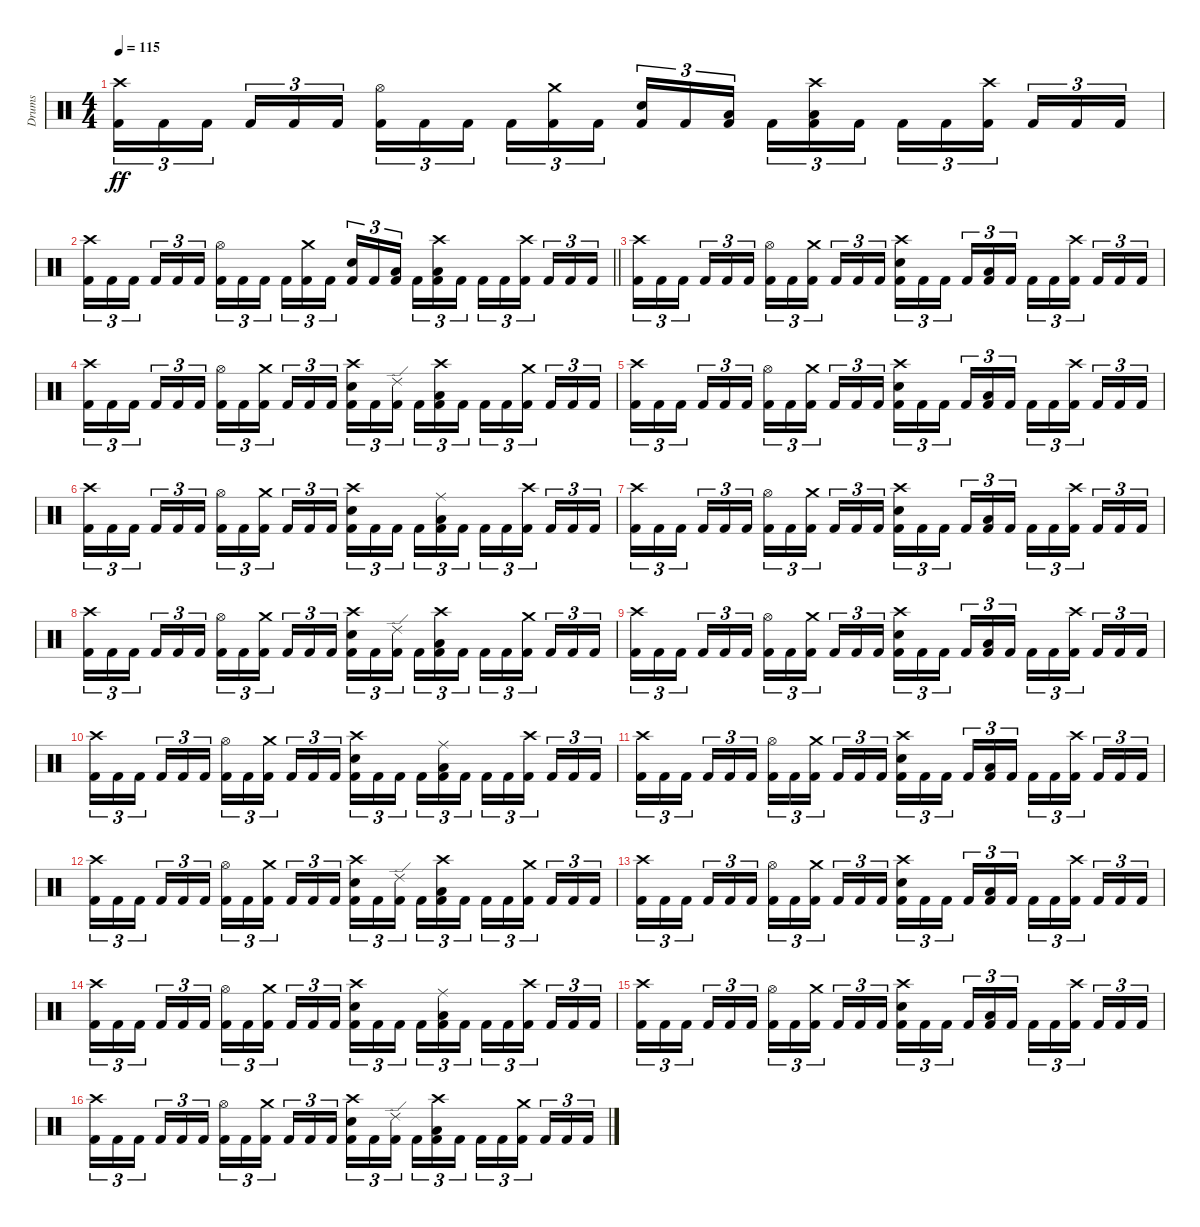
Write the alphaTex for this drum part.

\track ("Drums" "Drums") {instrument percussion}
\staff {score}
\articulation defaults
\ts (4 4)
\tempo 115
\clef neutral
\ks c
("Crash high (hit)" "Kick (hit) 2").16{tu (3 2) dy ff} "Kick (hit) 2".16{tu (3 2)} "Kick (hit) 2".16{tu (3 2) beam splitsecondary} "Kick (hit) 2".16{tu (3 2)} "Kick (hit) 2".16{tu (3 2)} "Kick (hit) 2".16{tu (3 2)} ("Hi-Hat (open)" "Kick (hit) 2").16{tu (3 2)} "Kick (hit) 2".16{tu (3 2)} "Kick (hit) 2".16{tu (3 2) beam splitsecondary} "Kick (hit) 2".16{tu (3 2)} ("Crash medium (hit)" "Kick (hit) 2").16{tu (3 2)} "Kick (hit) 2".16{tu (3 2)} ("Snare (hit) 2" "Kick (hit) 2").16{tu (3 2)} "Kick (hit) 2".16{tu (3 2)} ("Low Tom (hit)" "Kick (hit) 2").16{tu (3 2) beam splitsecondary} "Kick (hit) 2".16{tu (3 2)} ("Crash high (hit)" "Low Tom (hit)" "Kick (hit) 2").16{tu (3 2)} "Kick (hit) 2".16{tu (3 2)} "Kick (hit) 2".16{tu (3 2)} "Kick (hit) 2".16{tu (3 2)} ("Crash high (hit)" "Kick (hit) 2").16{tu (3 2) beam splitsecondary} "Kick (hit) 2".16{tu (3 2)} "Kick (hit) 2".16{tu (3 2)} "Kick (hit) 2".16{tu (3 2)} |
\barLineRight lightlight
("Crash high (hit)" "Kick (hit) 2").16{tu (3 2)} "Kick (hit) 2".16{tu (3 2)} "Kick (hit) 2".16{tu (3 2) beam splitsecondary} "Kick (hit) 2".16{tu (3 2)} "Kick (hit) 2".16{tu (3 2)} "Kick (hit) 2".16{tu (3 2)} ("Hi-Hat (open)" "Kick (hit) 2").16{tu (3 2)} "Kick (hit) 2".16{tu (3 2)} "Kick (hit) 2".16{tu (3 2) beam splitsecondary} "Kick (hit) 2".16{tu (3 2)} ("Crash medium (hit)" "Kick (hit) 2").16{tu (3 2)} "Kick (hit) 2".16{tu (3 2)} ("Snare (hit) 2" "Kick (hit) 2").16{tu (3 2)} "Kick (hit) 2".16{tu (3 2)} ("Low Tom (hit)" "Kick (hit) 2").16{tu (3 2) beam splitsecondary} "Kick (hit) 2".16{tu (3 2)} ("Crash high (hit)" "Low Tom (hit)" "Kick (hit) 2").16{tu (3 2)} "Kick (hit) 2".16{tu (3 2)} "Kick (hit) 2".16{tu (3 2)} "Kick (hit) 2".16{tu (3 2)} ("Crash high (hit)" "Kick (hit) 2").16{tu (3 2) beam splitsecondary} "Kick (hit) 2".16{tu (3 2)} "Kick (hit) 2".16{tu (3 2)} "Kick (hit) 2".16{tu (3 2)} |
("Crash high (hit)" "Kick (hit) 2").16{tu (3 2)} "Kick (hit) 2".16{tu (3 2)} "Kick (hit) 2".16{tu (3 2) beam splitsecondary} "Kick (hit) 2".16{tu (3 2)} "Kick (hit) 2".16{tu (3 2)} "Kick (hit) 2".16{tu (3 2)} ("Hi-Hat (open)" "Kick (hit) 2").16{tu (3 2)} "Kick (hit) 2".16{tu (3 2)} ("Crash medium (hit)" "Kick (hit) 2").16{tu (3 2) beam splitsecondary} "Kick (hit) 2".16{tu (3 2)} "Kick (hit) 2".16{tu (3 2)} "Kick (hit) 2".16{tu (3 2)} ("Crash high (hit)" "Snare (hit) 2" "Kick (hit) 2").16{tu (3 2)} "Kick (hit) 2".16{tu (3 2)} "Kick (hit) 2".16{tu (3 2) beam splitsecondary} "Kick (hit) 2".16{tu (3 2)} ("Low Tom (hit)" "Kick (hit) 2").16{tu (3 2)} "Kick (hit) 2".16{tu (3 2)} "Kick (hit) 2".16{tu (3 2)} "Kick (hit) 2".16{tu (3 2)} ("Crash high (hit)" "Kick (hit) 2").16{tu (3 2) beam splitsecondary} "Kick (hit) 2".16{tu (3 2)} "Kick (hit) 2".16{tu (3 2)} "Kick (hit) 2".16{tu (3 2)} |
("Crash high (hit)" "Kick (hit) 2").16{tu (3 2)} "Kick (hit) 2".16{tu (3 2)} "Kick (hit) 2".16{tu (3 2) beam splitsecondary} "Kick (hit) 2".16{tu (3 2)} "Kick (hit) 2".16{tu (3 2)} "Kick (hit) 2".16{tu (3 2)} ("Hi-Hat (open)" "Kick (hit) 2").16{tu (3 2)} "Kick (hit) 2".16{tu (3 2)} ("Crash medium (hit)" "Kick (hit) 2").16{tu (3 2) beam splitsecondary} "Kick (hit) 2".16{tu (3 2)} "Kick (hit) 2".16{tu (3 2)} "Kick (hit) 2".16{tu (3 2)} ("Crash high (hit)" "Snare (hit) 2" "Kick (hit) 2").16{tu (3 2)} "Kick (hit) 2".16{tu (3 2)} ("Ride (edge) 2" "Kick (hit) 2").16{tu (3 2) beam splitsecondary} "Kick (hit) 2".16{tu (3 2)} ("Crash high (hit)" "Low Tom (hit)" "Kick (hit) 2").16{tu (3 2)} "Kick (hit) 2".16{tu (3 2)} "Kick (hit) 2".16{tu (3 2)} "Kick (hit) 2".16{tu (3 2)} ("Crash medium (hit)" "Kick (hit) 2").16{tu (3 2) beam splitsecondary} "Kick (hit) 2".16{tu (3 2)} "Kick (hit) 2".16{tu (3 2)} "Kick (hit) 2".16{tu (3 2)} |
("Crash high (hit)" "Kick (hit) 2").16{tu (3 2)} "Kick (hit) 2".16{tu (3 2)} "Kick (hit) 2".16{tu (3 2) beam splitsecondary} "Kick (hit) 2".16{tu (3 2)} "Kick (hit) 2".16{tu (3 2)} "Kick (hit) 2".16{tu (3 2)} ("Hi-Hat (open)" "Kick (hit) 2").16{tu (3 2)} "Kick (hit) 2".16{tu (3 2)} ("Crash medium (hit)" "Kick (hit) 2").16{tu (3 2) beam splitsecondary} "Kick (hit) 2".16{tu (3 2)} "Kick (hit) 2".16{tu (3 2)} "Kick (hit) 2".16{tu (3 2)} ("Crash high (hit)" "Snare (hit) 2" "Kick (hit) 2").16{tu (3 2)} "Kick (hit) 2".16{tu (3 2)} "Kick (hit) 2".16{tu (3 2) beam splitsecondary} "Kick (hit) 2".16{tu (3 2)} ("Low Tom (hit)" "Kick (hit) 2").16{tu (3 2)} "Kick (hit) 2".16{tu (3 2)} "Kick (hit) 2".16{tu (3 2)} "Kick (hit) 2".16{tu (3 2)} ("Crash high (hit)" "Kick (hit) 2").16{tu (3 2) beam splitsecondary} "Kick (hit) 2".16{tu (3 2)} "Kick (hit) 2".16{tu (3 2)} "Kick (hit) 2".16{tu (3 2)} |
("Crash high (hit)" "Kick (hit) 2").16{tu (3 2)} "Kick (hit) 2".16{tu (3 2)} "Kick (hit) 2".16{tu (3 2) beam splitsecondary} "Kick (hit) 2".16{tu (3 2)} "Kick (hit) 2".16{tu (3 2)} "Kick (hit) 2".16{tu (3 2)} ("Hi-Hat (open)" "Kick (hit) 2").16{tu (3 2)} "Kick (hit) 2".16{tu (3 2)} ("Crash medium (hit)" "Kick (hit) 2").16{tu (3 2) beam splitsecondary} "Kick (hit) 2".16{tu (3 2)} "Kick (hit) 2".16{tu (3 2)} "Kick (hit) 2".16{tu (3 2)} ("Crash high (hit)" "Snare (hit) 2" "Kick (hit) 2").16{tu (3 2)} "Kick (hit) 2".16{tu (3 2)} "Kick (hit) 2".16{tu (3 2) beam splitsecondary} "Kick (hit) 2".16{tu (3 2)} ("Ride (middle)" "Low Tom (hit)" "Kick (hit) 2").16{tu (3 2)} "Kick (hit) 2".16{tu (3 2)} "Kick (hit) 2".16{tu (3 2)} "Kick (hit) 2".16{tu (3 2)} ("Crash high (hit)" "Kick (hit) 2").16{tu (3 2) beam splitsecondary} "Kick (hit) 2".16{tu (3 2)} "Kick (hit) 2".16{tu (3 2)} "Kick (hit) 2".16{tu (3 2)} |
("Crash high (hit)" "Kick (hit) 2").16{tu (3 2)} "Kick (hit) 2".16{tu (3 2)} "Kick (hit) 2".16{tu (3 2) beam splitsecondary} "Kick (hit) 2".16{tu (3 2)} "Kick (hit) 2".16{tu (3 2)} "Kick (hit) 2".16{tu (3 2)} ("Hi-Hat (open)" "Kick (hit) 2").16{tu (3 2)} "Kick (hit) 2".16{tu (3 2)} ("Crash medium (hit)" "Kick (hit) 2").16{tu (3 2) beam splitsecondary} "Kick (hit) 2".16{tu (3 2)} "Kick (hit) 2".16{tu (3 2)} "Kick (hit) 2".16{tu (3 2)} ("Crash high (hit)" "Snare (hit) 2" "Kick (hit) 2").16{tu (3 2)} "Kick (hit) 2".16{tu (3 2)} "Kick (hit) 2".16{tu (3 2) beam splitsecondary} "Kick (hit) 2".16{tu (3 2)} ("Low Tom (hit)" "Kick (hit) 2").16{tu (3 2)} "Kick (hit) 2".16{tu (3 2)} "Kick (hit) 2".16{tu (3 2)} "Kick (hit) 2".16{tu (3 2)} ("Crash high (hit)" "Kick (hit) 2").16{tu (3 2) beam splitsecondary} "Kick (hit) 2".16{tu (3 2)} "Kick (hit) 2".16{tu (3 2)} "Kick (hit) 2".16{tu (3 2)} |
("Crash high (hit)" "Kick (hit) 2").16{tu (3 2)} "Kick (hit) 2".16{tu (3 2)} "Kick (hit) 2".16{tu (3 2) beam splitsecondary} "Kick (hit) 2".16{tu (3 2)} "Kick (hit) 2".16{tu (3 2)} "Kick (hit) 2".16{tu (3 2)} ("Hi-Hat (open)" "Kick (hit) 2").16{tu (3 2)} "Kick (hit) 2".16{tu (3 2)} ("Crash medium (hit)" "Kick (hit) 2").16{tu (3 2) beam splitsecondary} "Kick (hit) 2".16{tu (3 2)} "Kick (hit) 2".16{tu (3 2)} "Kick (hit) 2".16{tu (3 2)} ("Crash high (hit)" "Snare (hit) 2" "Kick (hit) 2").16{tu (3 2)} "Kick (hit) 2".16{tu (3 2)} ("Ride (edge) 2" "Kick (hit) 2").16{tu (3 2) beam splitsecondary} "Kick (hit) 2".16{tu (3 2)} ("Crash high (hit)" "Low Tom (hit)" "Kick (hit) 2").16{tu (3 2)} "Kick (hit) 2".16{tu (3 2)} "Kick (hit) 2".16{tu (3 2)} "Kick (hit) 2".16{tu (3 2)} ("Crash medium (hit)" "Kick (hit) 2").16{tu (3 2) beam splitsecondary} "Kick (hit) 2".16{tu (3 2)} "Kick (hit) 2".16{tu (3 2)} "Kick (hit) 2".16{tu (3 2)} |
("Crash high (hit)" "Kick (hit) 2").16{tu (3 2)} "Kick (hit) 2".16{tu (3 2)} "Kick (hit) 2".16{tu (3 2) beam splitsecondary} "Kick (hit) 2".16{tu (3 2)} "Kick (hit) 2".16{tu (3 2)} "Kick (hit) 2".16{tu (3 2)} ("Hi-Hat (open)" "Kick (hit) 2").16{tu (3 2)} "Kick (hit) 2".16{tu (3 2)} ("Crash medium (hit)" "Kick (hit) 2").16{tu (3 2) beam splitsecondary} "Kick (hit) 2".16{tu (3 2)} "Kick (hit) 2".16{tu (3 2)} "Kick (hit) 2".16{tu (3 2)} ("Crash high (hit)" "Snare (hit) 2" "Kick (hit) 2").16{tu (3 2)} "Kick (hit) 2".16{tu (3 2)} "Kick (hit) 2".16{tu (3 2) beam splitsecondary} "Kick (hit) 2".16{tu (3 2)} ("Low Tom (hit)" "Kick (hit) 2").16{tu (3 2)} "Kick (hit) 2".16{tu (3 2)} "Kick (hit) 2".16{tu (3 2)} "Kick (hit) 2".16{tu (3 2)} ("Crash high (hit)" "Kick (hit) 2").16{tu (3 2) beam splitsecondary} "Kick (hit) 2".16{tu (3 2)} "Kick (hit) 2".16{tu (3 2)} "Kick (hit) 2".16{tu (3 2)} |
("Crash high (hit)" "Kick (hit) 2").16{tu (3 2)} "Kick (hit) 2".16{tu (3 2)} "Kick (hit) 2".16{tu (3 2) beam splitsecondary} "Kick (hit) 2".16{tu (3 2)} "Kick (hit) 2".16{tu (3 2)} "Kick (hit) 2".16{tu (3 2)} ("Hi-Hat (open)" "Kick (hit) 2").16{tu (3 2)} "Kick (hit) 2".16{tu (3 2)} ("Crash medium (hit)" "Kick (hit) 2").16{tu (3 2) beam splitsecondary} "Kick (hit) 2".16{tu (3 2)} "Kick (hit) 2".16{tu (3 2)} "Kick (hit) 2".16{tu (3 2)} ("Crash high (hit)" "Snare (hit) 2" "Kick (hit) 2").16{tu (3 2)} "Kick (hit) 2".16{tu (3 2)} "Kick (hit) 2".16{tu (3 2) beam splitsecondary} "Kick (hit) 2".16{tu (3 2)} ("Ride (middle)" "Low Tom (hit)" "Kick (hit) 2").16{tu (3 2)} "Kick (hit) 2".16{tu (3 2)} "Kick (hit) 2".16{tu (3 2)} "Kick (hit) 2".16{tu (3 2)} ("Crash high (hit)" "Kick (hit) 2").16{tu (3 2) beam splitsecondary} "Kick (hit) 2".16{tu (3 2)} "Kick (hit) 2".16{tu (3 2)} "Kick (hit) 2".16{tu (3 2)} |
("Crash high (hit)" "Kick (hit) 2").16{tu (3 2)} "Kick (hit) 2".16{tu (3 2)} "Kick (hit) 2".16{tu (3 2) beam splitsecondary} "Kick (hit) 2".16{tu (3 2)} "Kick (hit) 2".16{tu (3 2)} "Kick (hit) 2".16{tu (3 2)} ("Hi-Hat (open)" "Kick (hit) 2").16{tu (3 2)} "Kick (hit) 2".16{tu (3 2)} ("Crash medium (hit)" "Kick (hit) 2").16{tu (3 2) beam splitsecondary} "Kick (hit) 2".16{tu (3 2)} "Kick (hit) 2".16{tu (3 2)} "Kick (hit) 2".16{tu (3 2)} ("Crash high (hit)" "Snare (hit) 2" "Kick (hit) 2").16{tu (3 2)} "Kick (hit) 2".16{tu (3 2)} "Kick (hit) 2".16{tu (3 2) beam splitsecondary} "Kick (hit) 2".16{tu (3 2)} ("Low Tom (hit)" "Kick (hit) 2").16{tu (3 2)} "Kick (hit) 2".16{tu (3 2)} "Kick (hit) 2".16{tu (3 2)} "Kick (hit) 2".16{tu (3 2)} ("Crash high (hit)" "Kick (hit) 2").16{tu (3 2) beam splitsecondary} "Kick (hit) 2".16{tu (3 2)} "Kick (hit) 2".16{tu (3 2)} "Kick (hit) 2".16{tu (3 2)} |
("Crash high (hit)" "Kick (hit) 2").16{tu (3 2)} "Kick (hit) 2".16{tu (3 2)} "Kick (hit) 2".16{tu (3 2) beam splitsecondary} "Kick (hit) 2".16{tu (3 2)} "Kick (hit) 2".16{tu (3 2)} "Kick (hit) 2".16{tu (3 2)} ("Hi-Hat (open)" "Kick (hit) 2").16{tu (3 2)} "Kick (hit) 2".16{tu (3 2)} ("Crash medium (hit)" "Kick (hit) 2").16{tu (3 2) beam splitsecondary} "Kick (hit) 2".16{tu (3 2)} "Kick (hit) 2".16{tu (3 2)} "Kick (hit) 2".16{tu (3 2)} ("Crash high (hit)" "Snare (hit) 2" "Kick (hit) 2").16{tu (3 2)} "Kick (hit) 2".16{tu (3 2)} ("Ride (edge) 2" "Kick (hit) 2").16{tu (3 2) beam splitsecondary} "Kick (hit) 2".16{tu (3 2)} ("Crash high (hit)" "Low Tom (hit)" "Kick (hit) 2").16{tu (3 2)} "Kick (hit) 2".16{tu (3 2)} "Kick (hit) 2".16{tu (3 2)} "Kick (hit) 2".16{tu (3 2)} ("Crash medium (hit)" "Kick (hit) 2").16{tu (3 2) beam splitsecondary} "Kick (hit) 2".16{tu (3 2)} "Kick (hit) 2".16{tu (3 2)} "Kick (hit) 2".16{tu (3 2)} |
("Crash high (hit)" "Kick (hit) 2").16{tu (3 2)} "Kick (hit) 2".16{tu (3 2)} "Kick (hit) 2".16{tu (3 2) beam splitsecondary} "Kick (hit) 2".16{tu (3 2)} "Kick (hit) 2".16{tu (3 2)} "Kick (hit) 2".16{tu (3 2)} ("Hi-Hat (open)" "Kick (hit) 2").16{tu (3 2)} "Kick (hit) 2".16{tu (3 2)} ("Crash medium (hit)" "Kick (hit) 2").16{tu (3 2) beam splitsecondary} "Kick (hit) 2".16{tu (3 2)} "Kick (hit) 2".16{tu (3 2)} "Kick (hit) 2".16{tu (3 2)} ("Crash high (hit)" "Snare (hit) 2" "Kick (hit) 2").16{tu (3 2)} "Kick (hit) 2".16{tu (3 2)} "Kick (hit) 2".16{tu (3 2) beam splitsecondary} "Kick (hit) 2".16{tu (3 2)} ("Low Tom (hit)" "Kick (hit) 2").16{tu (3 2)} "Kick (hit) 2".16{tu (3 2)} "Kick (hit) 2".16{tu (3 2)} "Kick (hit) 2".16{tu (3 2)} ("Crash high (hit)" "Kick (hit) 2").16{tu (3 2) beam splitsecondary} "Kick (hit) 2".16{tu (3 2)} "Kick (hit) 2".16{tu (3 2)} "Kick (hit) 2".16{tu (3 2)} |
("Crash high (hit)" "Kick (hit) 2").16{tu (3 2)} "Kick (hit) 2".16{tu (3 2)} "Kick (hit) 2".16{tu (3 2) beam splitsecondary} "Kick (hit) 2".16{tu (3 2)} "Kick (hit) 2".16{tu (3 2)} "Kick (hit) 2".16{tu (3 2)} ("Hi-Hat (open)" "Kick (hit) 2").16{tu (3 2)} "Kick (hit) 2".16{tu (3 2)} ("Crash medium (hit)" "Kick (hit) 2").16{tu (3 2) beam splitsecondary} "Kick (hit) 2".16{tu (3 2)} "Kick (hit) 2".16{tu (3 2)} "Kick (hit) 2".16{tu (3 2)} ("Crash high (hit)" "Snare (hit) 2" "Kick (hit) 2").16{tu (3 2)} "Kick (hit) 2".16{tu (3 2)} "Kick (hit) 2".16{tu (3 2) beam splitsecondary} "Kick (hit) 2".16{tu (3 2)} ("Ride (middle)" "Low Tom (hit)" "Kick (hit) 2").16{tu (3 2)} "Kick (hit) 2".16{tu (3 2)} "Kick (hit) 2".16{tu (3 2)} "Kick (hit) 2".16{tu (3 2)} ("Crash high (hit)" "Kick (hit) 2").16{tu (3 2) beam splitsecondary} "Kick (hit) 2".16{tu (3 2)} "Kick (hit) 2".16{tu (3 2)} "Kick (hit) 2".16{tu (3 2)} |
("Crash high (hit)" "Kick (hit) 2").16{tu (3 2)} "Kick (hit) 2".16{tu (3 2)} "Kick (hit) 2".16{tu (3 2) beam splitsecondary} "Kick (hit) 2".16{tu (3 2)} "Kick (hit) 2".16{tu (3 2)} "Kick (hit) 2".16{tu (3 2)} ("Hi-Hat (open)" "Kick (hit) 2").16{tu (3 2)} "Kick (hit) 2".16{tu (3 2)} ("Crash medium (hit)" "Kick (hit) 2").16{tu (3 2) beam splitsecondary} "Kick (hit) 2".16{tu (3 2)} "Kick (hit) 2".16{tu (3 2)} "Kick (hit) 2".16{tu (3 2)} ("Crash high (hit)" "Snare (hit) 2" "Kick (hit) 2").16{tu (3 2)} "Kick (hit) 2".16{tu (3 2)} "Kick (hit) 2".16{tu (3 2) beam splitsecondary} "Kick (hit) 2".16{tu (3 2)} ("Low Tom (hit)" "Kick (hit) 2").16{tu (3 2)} "Kick (hit) 2".16{tu (3 2)} "Kick (hit) 2".16{tu (3 2)} "Kick (hit) 2".16{tu (3 2)} ("Crash high (hit)" "Kick (hit) 2").16{tu (3 2) beam splitsecondary} "Kick (hit) 2".16{tu (3 2)} "Kick (hit) 2".16{tu (3 2)} "Kick (hit) 2".16{tu (3 2)} |
("Crash high (hit)" "Kick (hit) 2").16{tu (3 2)} "Kick (hit) 2".16{tu (3 2)} "Kick (hit) 2".16{tu (3 2) beam splitsecondary} "Kick (hit) 2".16{tu (3 2)} "Kick (hit) 2".16{tu (3 2)} "Kick (hit) 2".16{tu (3 2)} ("Hi-Hat (open)" "Kick (hit) 2").16{tu (3 2)} "Kick (hit) 2".16{tu (3 2)} ("Crash medium (hit)" "Kick (hit) 2").16{tu (3 2) beam splitsecondary} "Kick (hit) 2".16{tu (3 2)} "Kick (hit) 2".16{tu (3 2)} "Kick (hit) 2".16{tu (3 2)} ("Crash high (hit)" "Snare (hit) 2" "Kick (hit) 2").16{tu (3 2)} "Kick (hit) 2".16{tu (3 2)} ("Ride (edge) 2" "Kick (hit) 2").16{tu (3 2) beam splitsecondary} "Kick (hit) 2".16{tu (3 2)} ("Crash high (hit)" "Low Tom (hit)" "Kick (hit) 2").16{tu (3 2)} "Kick (hit) 2".16{tu (3 2)} "Kick (hit) 2".16{tu (3 2)} "Kick (hit) 2".16{tu (3 2)} ("Crash medium (hit)" "Kick (hit) 2").16{tu (3 2) beam splitsecondary} "Kick (hit) 2".16{tu (3 2)} "Kick (hit) 2".16{tu (3 2)} "Kick (hit) 2".16{tu (3 2)}
